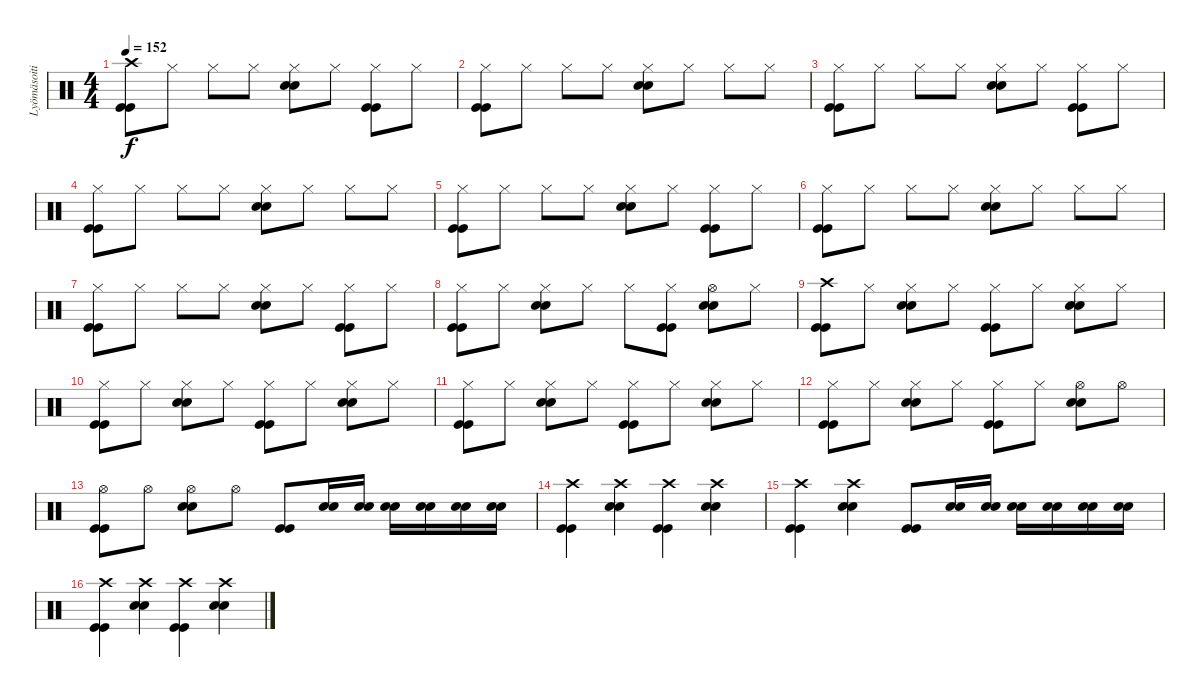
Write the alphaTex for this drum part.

\track ("Lyömäsoitin" "Lyömäsoiti") {instrument percussion}
\staff {score}
\articulation defaults
\ts (4 4)
\tempo 152
\clef neutral
\ks c
("Crash high (hit)" "Kick (hit)" "Kick (hit)").8{dy f} "Hi-Hat (closed)".8 "Hi-Hat (closed)".8 "Hi-Hat (closed)".8 ("Hi-Hat (closed)" "Snare (hit) 2" "Snare (hit) 2").8 "Hi-Hat (closed)".8 ("Hi-Hat (closed)" "Kick (hit)" "Kick (hit)").8 "Hi-Hat (closed)".8 |
("Hi-Hat (closed)" "Kick (hit)" "Kick (hit)").8 "Hi-Hat (closed)".8 "Hi-Hat (closed)".8 "Hi-Hat (closed)".8 ("Hi-Hat (closed)" "Snare (hit) 2" "Snare (hit) 2").8 "Hi-Hat (closed)".8 "Hi-Hat (closed)".8 "Hi-Hat (closed)".8 |
("Hi-Hat (closed)" "Kick (hit)" "Kick (hit)").8 "Hi-Hat (closed)".8 "Hi-Hat (closed)".8 "Hi-Hat (closed)".8 ("Hi-Hat (closed)" "Snare (hit) 2" "Snare (hit) 2").8 "Hi-Hat (closed)".8 ("Hi-Hat (closed)" "Kick (hit)" "Kick (hit)").8 "Hi-Hat (closed)".8 |
("Hi-Hat (closed)" "Kick (hit)" "Kick (hit)").8 "Hi-Hat (closed)".8 "Hi-Hat (closed)".8 "Hi-Hat (closed)".8 ("Hi-Hat (closed)" "Snare (hit) 2" "Snare (hit) 2").8 "Hi-Hat (closed)".8 "Hi-Hat (closed)".8 "Hi-Hat (closed)".8 |
("Hi-Hat (closed)" "Kick (hit)" "Kick (hit)").8 "Hi-Hat (closed)".8 "Hi-Hat (closed)".8 "Hi-Hat (closed)".8 ("Hi-Hat (closed)" "Snare (hit) 2" "Snare (hit) 2").8 "Hi-Hat (closed)".8 ("Hi-Hat (closed)" "Kick (hit)" "Kick (hit)").8 "Hi-Hat (closed)".8 |
("Hi-Hat (closed)" "Kick (hit)" "Kick (hit)").8 "Hi-Hat (closed)".8 "Hi-Hat (closed)".8 "Hi-Hat (closed)".8 ("Hi-Hat (closed)" "Snare (hit) 2" "Snare (hit) 2").8 "Hi-Hat (closed)".8 "Hi-Hat (closed)".8 "Hi-Hat (closed)".8 |
("Hi-Hat (closed)" "Kick (hit)" "Kick (hit)").8 "Hi-Hat (closed)".8 "Hi-Hat (closed)".8 "Hi-Hat (closed)".8 ("Hi-Hat (closed)" "Snare (hit) 2" "Snare (hit) 2").8 "Hi-Hat (closed)".8 ("Hi-Hat (closed)" "Kick (hit)" "Kick (hit)").8 "Hi-Hat (closed)".8 |
("Hi-Hat (closed)" "Kick (hit)" "Kick (hit)").8 "Hi-Hat (closed)".8 ("Hi-Hat (closed)" "Snare (hit) 2" "Snare (hit) 2").8 "Hi-Hat (closed)".8 "Hi-Hat (closed)".8 ("Hi-Hat (closed)" "Kick (hit)" "Kick (hit)").8 ("Hi-Hat (open)" "Snare (hit) 2" "Snare (hit) 2").8 "Hi-Hat (closed)".8 |
("Crash high (hit)" "Kick (hit)" "Kick (hit)").8 "Hi-Hat (closed)".8 ("Hi-Hat (closed)" "Snare (hit) 2" "Snare (hit) 2").8 "Hi-Hat (closed)".8 ("Hi-Hat (closed)" "Kick (hit)" "Kick (hit)").8 "Hi-Hat (closed)".8 ("Hi-Hat (closed)" "Snare (hit) 2" "Snare (hit) 2").8 "Hi-Hat (closed)".8 |
("Hi-Hat (closed)" "Kick (hit)" "Kick (hit)").8 "Hi-Hat (closed)".8 ("Hi-Hat (closed)" "Snare (hit) 2" "Snare (hit) 2").8 "Hi-Hat (closed)".8 ("Hi-Hat (closed)" "Kick (hit)" "Kick (hit)").8 "Hi-Hat (closed)".8 ("Hi-Hat (closed)" "Snare (hit) 2" "Snare (hit) 2").8 "Hi-Hat (closed)".8 |
("Hi-Hat (closed)" "Kick (hit)" "Kick (hit)").8 "Hi-Hat (closed)".8 ("Hi-Hat (closed)" "Snare (hit) 2" "Snare (hit) 2").8 "Hi-Hat (closed)".8 ("Hi-Hat (closed)" "Kick (hit)" "Kick (hit)").8 "Hi-Hat (closed)".8 ("Hi-Hat (closed)" "Snare (hit) 2" "Snare (hit) 2").8 "Hi-Hat (closed)".8 |
("Hi-Hat (closed)" "Kick (hit)" "Kick (hit)").8 "Hi-Hat (closed)".8 ("Hi-Hat (closed)" "Snare (hit) 2" "Snare (hit) 2").8 "Hi-Hat (closed)".8 ("Hi-Hat (closed)" "Kick (hit)" "Kick (hit)").8 "Hi-Hat (closed)".8 ("Hi-Hat (open)" "Snare (hit) 2" "Snare (hit) 2").8 "Hi-Hat (open)".8 |
("Hi-Hat (open)" "Kick (hit)" "Kick (hit)").8 "Hi-Hat (open)".8 ("Hi-Hat (open)" "Snare (hit) 2" "Snare (hit) 2").8 "Hi-Hat (open)".8 ("Kick (hit)" "Kick (hit)").8 ("Snare (hit) 2" "Snare (hit) 2").16 ("Snare (hit) 2" "Snare (hit) 2").16 ("Snare (hit) 2" "Snare (hit) 2").16 ("Snare (hit) 2" "Snare (hit) 2").16 ("Snare (hit) 2" "Snare (hit) 2").16 ("Snare (hit) 2" "Snare (hit) 2").16 |
("Crash high (hit)" "Kick (hit)" "Kick (hit)").4 ("Crash high (hit)" "Snare (hit) 2" "Snare (hit) 2").4 ("Crash high (hit)" "Kick (hit)" "Kick (hit)").4 ("Crash high (hit)" "Snare (hit) 2" "Snare (hit) 2").4 |
("Crash high (hit)" "Kick (hit)" "Kick (hit)").4 ("Crash high (hit)" "Snare (hit) 2" "Snare (hit) 2").4 ("Kick (hit)" "Kick (hit)").8 ("Snare (hit) 2" "Snare (hit) 2").16 ("Snare (hit) 2" "Snare (hit) 2").16 ("Snare (hit) 2" "Snare (hit) 2").16 ("Snare (hit) 2" "Snare (hit) 2").16 ("Snare (hit) 2" "Snare (hit) 2").16 ("Snare (hit) 2" "Snare (hit) 2").16 |
("Crash high (hit)" "Kick (hit)" "Kick (hit)").4 ("Crash high (hit)" "Snare (hit) 2" "Snare (hit) 2").4 ("Crash high (hit)" "Kick (hit)" "Kick (hit)").4 ("Crash high (hit)" "Snare (hit) 2" "Snare (hit) 2").4
